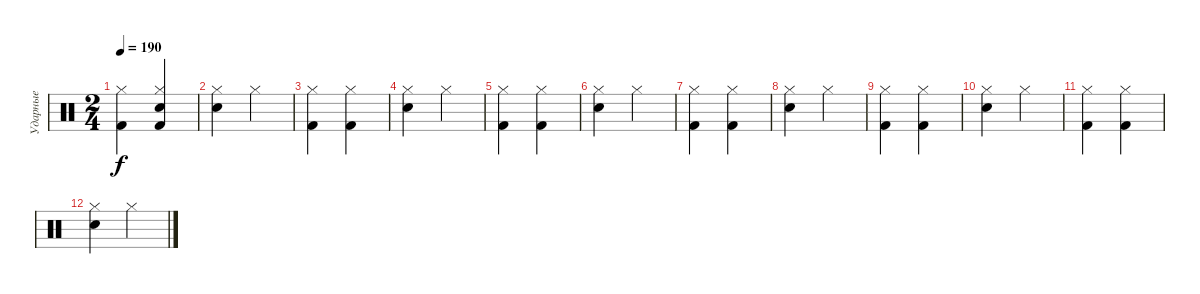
\track ("Ударные" "Ударные") {instrument percussion}
\staff {score}
\articulation defaults
\ts (2 4)
\tempo 190
\clef neutral
\ks c
("Kick (hit) 2" "Hi-Hat (closed)").4{dy f} ("Hi-Hat (closed)" "Kick (hit) 2" "Snare (hit)").4 |
("Hi-Hat (closed)" "Snare (hit) 2").4 "Hi-Hat (closed)".4 |
("Hi-Hat (closed)" "Kick (hit) 2").4 ("Hi-Hat (closed)" "Kick (hit) 2").4 |
("Hi-Hat (closed)" "Snare (hit) 2").4 "Hi-Hat (closed)".4 |
("Hi-Hat (closed)" "Kick (hit) 2").4 ("Hi-Hat (closed)" "Kick (hit) 2").4 |
("Hi-Hat (closed)" "Snare (hit) 2").4 "Hi-Hat (closed)".4 |
("Hi-Hat (closed)" "Kick (hit) 2").4 ("Hi-Hat (closed)" "Kick (hit) 2").4 |
("Hi-Hat (closed)" "Snare (hit) 2").4 "Hi-Hat (closed)".4 |
("Hi-Hat (closed)" "Kick (hit) 2").4 ("Hi-Hat (closed)" "Kick (hit) 2").4 |
("Hi-Hat (closed)" "Snare (hit) 2").4 "Hi-Hat (closed)".4 |
("Hi-Hat (closed)" "Kick (hit) 2").4 ("Hi-Hat (closed)" "Kick (hit) 2").4 |
("Hi-Hat (closed)" "Snare (hit) 2").4 "Hi-Hat (closed)".4
